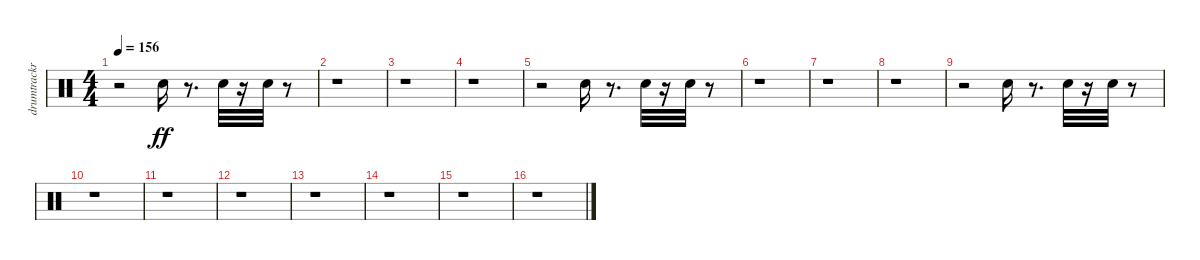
\track ("drumtrackr " "drumtrackr") {instrument percussion}
\staff {score}
\articulation defaults
\ts (4 4)
\tempo 156
\clef neutral
\ks c
r.2{dy ff} "Snare (hit) 2".16 r.8{d} "Snare (hit) 2".32 r.16 "Snare (hit) 2".32 r.8 |
r.1 |
r.1 |
r.1 |
r.2 "Snare (hit) 2".16 r.8{d} "Snare (hit) 2".32 r.16 "Snare (hit) 2".32 r.8 |
r.1 |
r.1 |
r.1 |
r.2 "Snare (hit) 2".16 r.8{d} "Snare (hit) 2".32 r.16 "Snare (hit) 2".32 r.8 |
r.1 |
r.1 |
r.1 |
r.1 |
r.1 |
r.1 |
r.1
